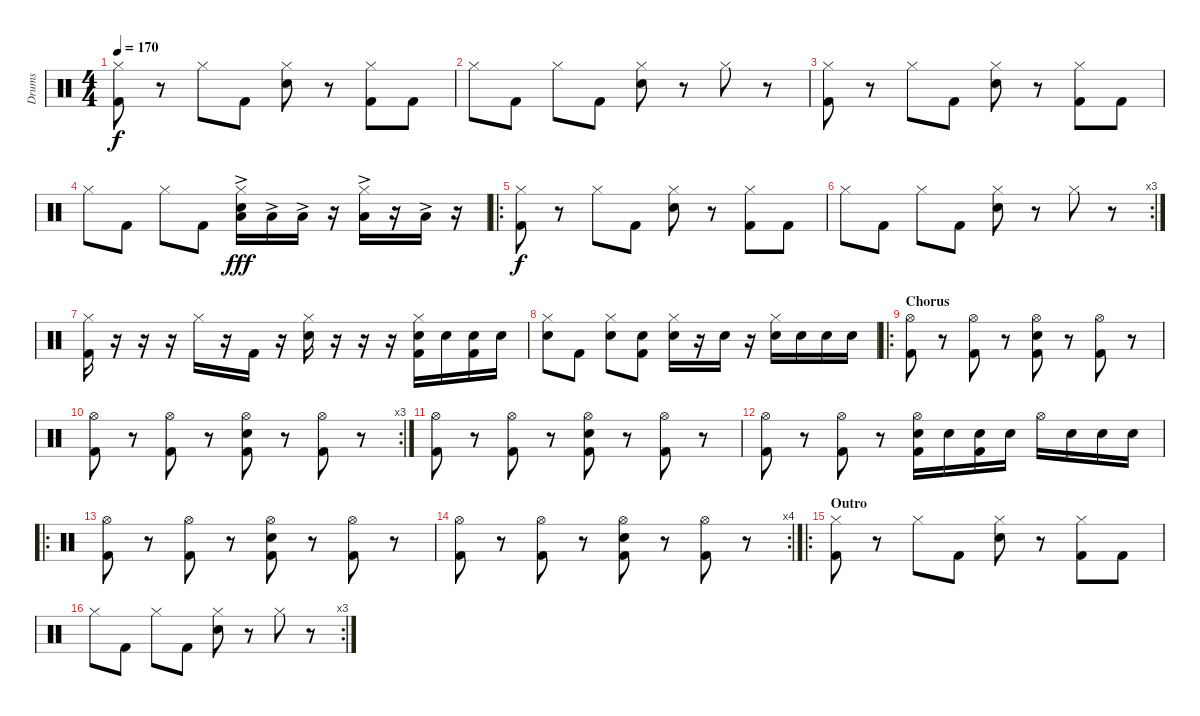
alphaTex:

\track ("Drums" "Drums") {instrument percussion}
\staff {score}
\articulation defaults
\ts (4 4)
\tempo 170
\clef neutral
\ks c
("Hi-Hat (closed)" "Kick (hit) 2").8{dy f} r.8 "Hi-Hat (closed)".8 "Kick (hit) 2".8 ("Hi-Hat (closed)" "Snare (hit) 2").8 r.8 ("Hi-Hat (closed)" "Kick (hit) 2").8 "Kick (hit) 2".8 |
"Hi-Hat (closed)".8 "Kick (hit) 2".8 "Hi-Hat (closed)".8 "Kick (hit) 2".8 ("Hi-Hat (closed)" "Snare (hit) 2").8 r.8 "Hi-Hat (closed)".8 r.8 |
("Hi-Hat (closed)" "Kick (hit) 2").8 r.8 "Hi-Hat (closed)".8 "Kick (hit) 2".8 ("Hi-Hat (closed)" "Snare (hit) 2").8 r.8 ("Hi-Hat (closed)" "Kick (hit) 2").8 "Kick (hit) 2".8 |
"Hi-Hat (closed)".8 "Kick (hit) 2".8 "Hi-Hat (closed)".8 "Kick (hit) 2".8 ("Hi-Hat (closed)" "Low Tom (hit)"{ac} "Snare (hit) 2").16{dy fff} "Low Tom (hit)"{ac}.16 "Low Tom (hit)"{ac}.16 r.16 ("Hi-Hat (closed)" "Low Tom (hit)"{ac}).16 r.16 "Low Tom (hit)"{ac}.16 r.16 |
\ro
("Hi-Hat (closed)" "Kick (hit) 2").8{dy f} r.8 "Hi-Hat (closed)".8 "Kick (hit) 2".8 ("Hi-Hat (closed)" "Snare (hit) 2").8 r.8 ("Hi-Hat (closed)" "Kick (hit) 2").8 "Kick (hit) 2".8 |
\rc 3 "Hi-Hat (closed)".8 "Kick (hit) 2".8 "Hi-Hat (closed)".8 "Kick (hit) 2".8
("Hi-Hat (closed)" "Snare (hit) 2").8 r.8 "Hi-Hat (closed)".8 r.8 |
("Hi-Hat (closed)" "Kick (hit) 2").16 r.16 r.16 r.16 "Hi-Hat (closed)".16 r.16 "Kick (hit) 2".16 r.16 ("Hi-Hat (closed)" "Snare (hit) 2").16 r.16 r.16 r.16 ("Hi-Hat (closed)" "Snare (hit) 2" "Kick (hit) 2").16 "Snare (hit) 2".16 ("Snare (hit) 2" "Kick (hit) 2").16 "Snare (hit) 2".16 |
("Hi-Hat (closed)" "Snare (hit) 2").8 "Kick (hit) 2".8 ("Hi-Hat (closed)" "Snare (hit) 2").8 ("Snare (hit) 2" "Kick (hit) 2").8 ("Hi-Hat (closed)" "Snare (hit) 2").16 r.16 "Snare (hit) 2".16 r.16 ("Hi-Hat (closed)" "Snare (hit) 2").16 "Snare (hit) 2".16 "Snare (hit) 2".16 "Snare (hit) 2".16 |
\ro
\section ("" "Chorus")
("Hi-Hat (open)" "Kick (hit) 2").8 r.8 ("Hi-Hat (open)" "Kick (hit) 2").8 r.8 ("Hi-Hat (open)" "Snare (hit) 2" "Kick (hit) 2").8 r.8 ("Hi-Hat (open)" "Kick (hit) 2").8 r.8 |
\rc 3
("Hi-Hat (open)" "Kick (hit) 2").8 r.8 ("Hi-Hat (open)" "Kick (hit) 2").8 r.8 ("Hi-Hat (open)" "Snare (hit) 2" "Kick (hit) 2").8 r.8 ("Hi-Hat (open)" "Kick (hit) 2").8 r.8 |
("Hi-Hat (open)" "Kick (hit) 2").8 r.8 ("Hi-Hat (open)" "Kick (hit) 2").8 r.8 ("Hi-Hat (open)" "Snare (hit) 2" "Kick (hit) 2").8 r.8 ("Hi-Hat (open)" "Kick (hit) 2").8 r.8 |
("Hi-Hat (open)" "Kick (hit) 2").8 r.8 ("Hi-Hat (open)" "Kick (hit) 2").8 r.8 ("Hi-Hat (open)" "Snare (hit) 2" "Kick (hit) 2").16 "Snare (hit) 2".16 ("Snare (hit) 2" "Kick (hit) 2").16 "Snare (hit) 2".16 "Hi-Hat (open)".16 "Snare (hit) 2".16 "Snare (hit) 2".16 "Snare (hit) 2".16 |
\ro
("Hi-Hat (open)" "Kick (hit) 2").8 r.8 ("Hi-Hat (open)" "Kick (hit) 2").8 r.8 ("Hi-Hat (open)" "Snare (hit) 2" "Kick (hit) 2").8 r.8 ("Hi-Hat (open)" "Kick (hit) 2").8 r.8 |
\rc 4
("Hi-Hat (open)" "Kick (hit) 2").8 r.8 ("Hi-Hat (open)" "Kick (hit) 2").8 r.8 ("Hi-Hat (open)" "Snare (hit) 2" "Kick (hit) 2").8 r.8 ("Hi-Hat (open)" "Kick (hit) 2").8 r.8 |
\ro
\section ("" "Outro")
("Hi-Hat (closed)" "Kick (hit) 2").8 r.8 "Hi-Hat (closed)".8 "Kick (hit) 2".8 ("Hi-Hat (closed)" "Snare (hit) 2").8 r.8 ("Hi-Hat (closed)" "Kick (hit) 2").8 "Kick (hit) 2".8 |
\rc 3 "Hi-Hat (closed)".8 "Kick (hit) 2".8 "Hi-Hat (closed)".8 "Kick (hit) 2".8
("Hi-Hat (closed)" "Snare (hit) 2").8 r.8 "Hi-Hat (closed)".8 r.8
